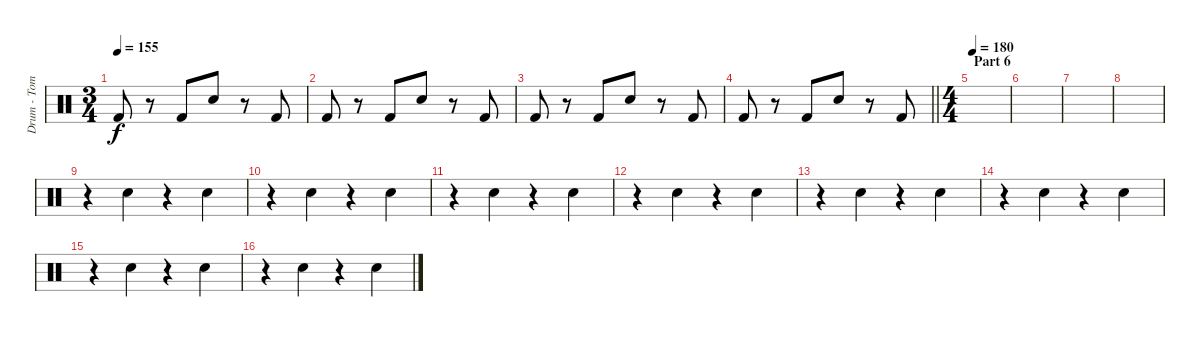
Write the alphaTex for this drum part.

\track ("Drum - Tom" "Drum - Tom") {instrument percussion}
\staff {score}
\articulation defaults
\ts (3 4)
\tempo 155
\clef neutral
\ks c "Kick (hit) 2".8{dy f}
r.8 "Kick (hit) 2".8 "Electric Snare (hit)".8 r.8 "Kick (hit) 2".8 |
"Kick (hit) 2".8 r.8 "Kick (hit) 2".8 "Electric Snare (hit)".8 r.8 "Kick (hit) 2".8 |
"Kick (hit) 2".8 r.8 "Kick (hit) 2".8 "Electric Snare (hit)".8 r.8 "Kick (hit) 2".8 |
\barLineRight lightlight "Kick (hit) 2".8
r.8 "Kick (hit) 2".8 "Electric Snare (hit)".8 r.8 "Kick (hit) 2".8 |
\ts (4 4)
\section ("" "Part 6")
\tempo 180
|
|
|
|
r.4 "Snare (hit) 2".4 r.4 "Snare (hit) 2".4 |
r.4 "Snare (hit) 2".4 r.4 "Snare (hit) 2".4 |
r.4 "Snare (hit) 2".4 r.4 "Snare (hit) 2".4 |
r.4 "Snare (hit) 2".4 r.4 "Snare (hit) 2".4 |
r.4 "Snare (hit) 2".4 r.4 "Snare (hit) 2".4 |
r.4 "Snare (hit) 2".4 r.4 "Snare (hit) 2".4 |
r.4 "Snare (hit) 2".4 r.4 "Snare (hit) 2".4 |
r.4 "Snare (hit) 2".4 r.4 "Snare (hit) 2".4
